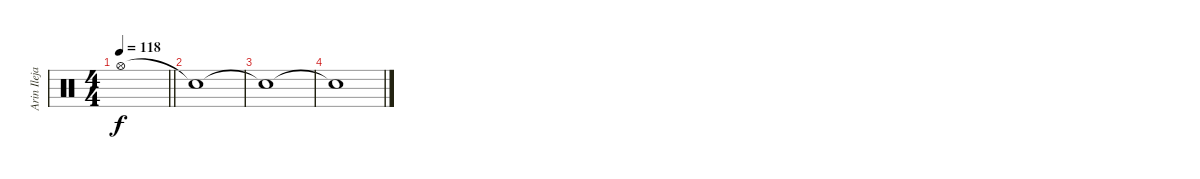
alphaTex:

\track ("Arin Ilejay" "Arin Ileja") {instrument percussion bank 164}
\staff {score}
\articulation defaults
\ts (4 4)
\tempo 118
\clef neutral
\barLineRight lightlight
\ks c "Hi-Hat (open)"{t}.1{dy f}
|
"Snare (hit)"{t}.1 |
"Snare (hit)"{t}.1 |
"Snare (hit)"{t}.1
